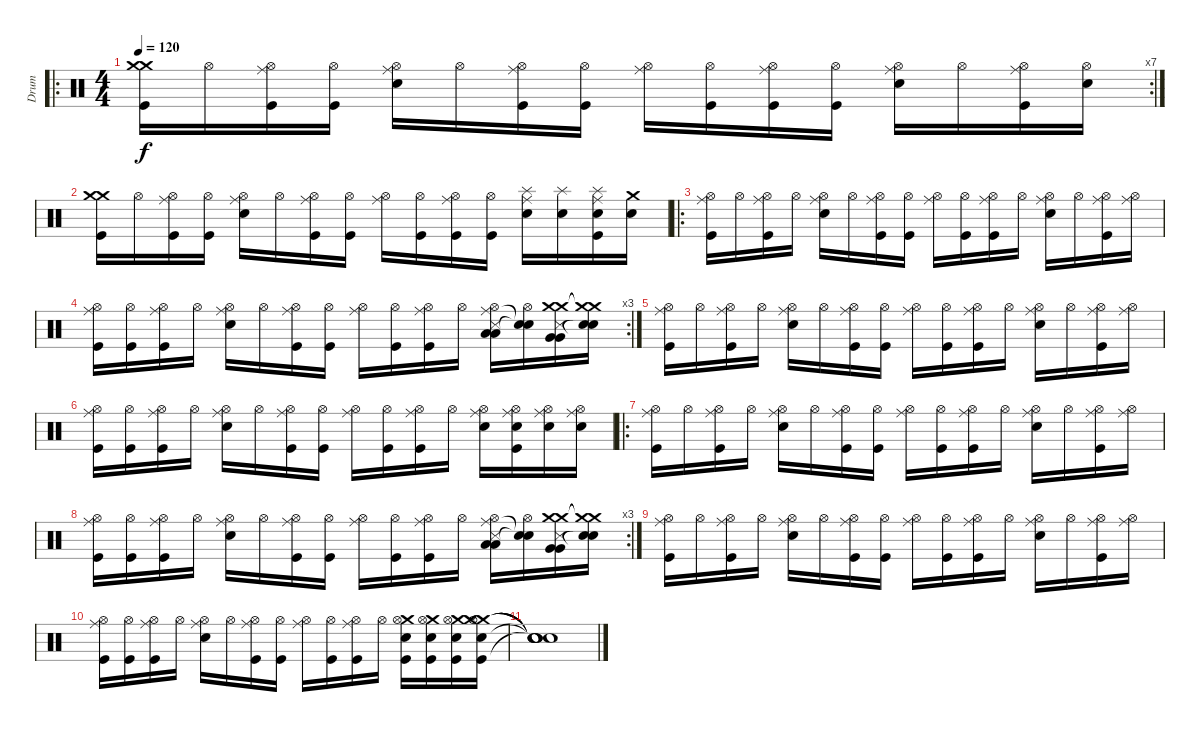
\track ("Drum" "Drum") {instrument percussion}
\staff {score}
\articulation defaults
\ro
\rc 7
\ts (4 4)
\tempo 120
\clef neutral
\ks c
("Crash medium (hit)" "Crash medium (hit)" "Kick (hit)").16{dy f} "Hi-Hat (open)".16 ("Hi-Hat (open)" "Ride (middle)" "Kick (hit)").16 ("Hi-Hat (open)" "Kick (hit)").16 ("Hi-Hat (open)" "Ride (middle)" "Snare (hit) 2").16 "Hi-Hat (open)".16 ("Hi-Hat (open)" "Ride (middle)" "Kick (hit)").16 ("Hi-Hat (open)" "Kick (hit)").16 ("Hi-Hat (open)" "Ride (middle)").16 ("Hi-Hat (open)" "Kick (hit)").16 ("Hi-Hat (open)" "Ride (middle)" "Kick (hit)").16 ("Hi-Hat (open)" "Kick (hit)").16 ("Hi-Hat (open)" "Ride (middle)" "Snare (hit) 2").16 "Hi-Hat (open)".16 ("Hi-Hat (open)" "Ride (middle)" "Kick (hit)").16 ("Hi-Hat (open)" "Snare (hit) 2").16 |
("Crash medium (hit)" "Crash medium (hit)" "Kick (hit)").16 "Hi-Hat (open)".16 ("Hi-Hat (open)" "Ride (middle)" "Kick (hit)").16 ("Hi-Hat (open)" "Kick (hit)").16 ("Hi-Hat (open)" "Ride (middle)" "Snare (hit) 2").16 "Hi-Hat (open)".16 ("Hi-Hat (open)" "Ride (middle)" "Kick (hit)").16 ("Hi-Hat (open)" "Kick (hit)").16 ("Hi-Hat (open)" "Ride (middle)").16 ("Hi-Hat (open)" "Kick (hit)").16 ("Hi-Hat (open)" "Ride (middle)" "Kick (hit)").16 ("Hi-Hat (open)" "Kick (hit)").16 ("Splash (hit)" "Ride (middle)" "Snare (hit) 2").16 ("Splash (hit)" "Snare (hit) 2").16 ("Splash (hit)" "Ride (middle)" "Snare (hit) 2" "Kick (hit)").16 ("Crash medium (hit)" "Snare (hit) 2").16 |
\ro
("Hi-Hat (open)" "Ride (middle)" "Kick (hit)").16 "Hi-Hat (open)".16 ("Hi-Hat (open)" "Ride (middle)" "Kick (hit)").16 "Hi-Hat (open)".16 ("Hi-Hat (open)" "Ride (middle)" "Snare (hit) 2").16 "Hi-Hat (open)".16 ("Hi-Hat (open)" "Ride (middle)" "Kick (hit)").16 ("Hi-Hat (open)" "Kick (hit)").16 ("Hi-Hat (open)" "Ride (middle)").16 ("Hi-Hat (open)" "Kick (hit)").16 ("Hi-Hat (open)" "Ride (middle)" "Kick (hit)").16 "Hi-Hat (open)".16 ("Hi-Hat (open)" "Ride (middle)" "Snare (hit) 2").16 "Hi-Hat (open)".16 ("Hi-Hat (open)" "Ride (middle)" "Kick (hit)").16 ("Hi-Hat (open)" "Ride (middle)").16 |
\rc 3
("Hi-Hat (open)" "Ride (middle)" "Kick (hit)").16 ("Hi-Hat (open)" "Kick (hit)").16 ("Hi-Hat (open)" "Ride (middle)" "Kick (hit)").16 "Hi-Hat (open)".16 ("Hi-Hat (open)" "Ride (middle)" "Snare (hit) 2").16 "Hi-Hat (open)".16 ("Hi-Hat (open)" "Ride (middle)" "Kick (hit)").16 ("Hi-Hat (open)" "Kick (hit)").16 ("Hi-Hat (open)" "Ride (middle)").16 ("Hi-Hat (open)" "Kick (hit)").16 ("Hi-Hat (open)" "Ride (middle)" "Kick (hit)").16 "Hi-Hat (open)".16 ("Hi-Hat (open)" "Ride (middle)" "Low Tom (hit)" "Low Tom (hit)" "Metronome (hit)").16 ("Hi-Hat (open)" "Snare (hit)"{t} "Snare (hit)"{t}).16 ("Crash medium (hit)" "Crash medium (hit)" "Very Low Tom (hit)" "Very Low Tom (hit)" "Metronome (hit)").16 ("Crash medium (hit)"{t} "Crash medium (hit)"{t} "Snare (hit)"{t} "Snare (hit)"{t}).16 |
("Hi-Hat (open)" "Ride (middle)" "Kick (hit)").16 "Hi-Hat (open)".16 ("Hi-Hat (open)" "Ride (middle)" "Kick (hit)").16 "Hi-Hat (open)".16 ("Hi-Hat (open)" "Ride (middle)" "Snare (hit) 2").16 "Hi-Hat (open)".16 ("Hi-Hat (open)" "Ride (middle)" "Kick (hit)").16 ("Hi-Hat (open)" "Kick (hit)").16 ("Hi-Hat (open)" "Ride (middle)").16 ("Hi-Hat (open)" "Kick (hit)").16 ("Hi-Hat (open)" "Ride (middle)" "Kick (hit)").16 "Hi-Hat (open)".16 ("Hi-Hat (open)" "Ride (middle)" "Snare (hit) 2").16 "Hi-Hat (open)".16 ("Hi-Hat (open)" "Ride (middle)" "Kick (hit)").16 ("Hi-Hat (open)" "Ride (middle)").16 |
("Hi-Hat (open)" "Ride (middle)" "Kick (hit)").16 ("Hi-Hat (open)" "Kick (hit)").16 ("Hi-Hat (open)" "Ride (middle)" "Kick (hit)").16 "Hi-Hat (open)".16 ("Hi-Hat (open)" "Ride (middle)" "Snare (hit) 2").16 "Hi-Hat (open)".16 ("Hi-Hat (open)" "Ride (middle)" "Kick (hit)").16 ("Hi-Hat (open)" "Kick (hit)").16 ("Hi-Hat (open)" "Ride (middle)").16 ("Hi-Hat (open)" "Kick (hit)").16 ("Hi-Hat (open)" "Ride (middle)" "Kick (hit)").16 "Hi-Hat (open)".16 ("Hi-Hat (open)" "Ride (middle)" "Snare (hit) 2").16 ("Hi-Hat (open)" "Ride (middle)" "Snare (hit) 2" "Kick (hit)").16 ("Hi-Hat (open)" "Ride (middle)" "Snare (hit) 2").16 ("Hi-Hat (open)" "Ride (middle)" "Snare (hit) 2").16 |
\ro
("Hi-Hat (open)" "Ride (middle)" "Kick (hit)").16 "Hi-Hat (open)".16 ("Hi-Hat (open)" "Ride (middle)" "Kick (hit)").16 "Hi-Hat (open)".16 ("Hi-Hat (open)" "Ride (middle)" "Snare (hit) 2").16 "Hi-Hat (open)".16 ("Hi-Hat (open)" "Ride (middle)" "Kick (hit)").16 ("Hi-Hat (open)" "Kick (hit)").16 ("Hi-Hat (open)" "Ride (middle)").16 ("Hi-Hat (open)" "Kick (hit)").16 ("Hi-Hat (open)" "Ride (middle)" "Kick (hit)").16 "Hi-Hat (open)".16 ("Hi-Hat (open)" "Ride (middle)" "Snare (hit) 2").16 "Hi-Hat (open)".16 ("Hi-Hat (open)" "Ride (middle)" "Kick (hit)").16 ("Hi-Hat (open)" "Ride (middle)").16 |
\rc 3
("Hi-Hat (open)" "Ride (middle)" "Kick (hit)").16 ("Hi-Hat (open)" "Kick (hit)").16 ("Hi-Hat (open)" "Ride (middle)" "Kick (hit)").16 "Hi-Hat (open)".16 ("Hi-Hat (open)" "Ride (middle)" "Snare (hit) 2").16 "Hi-Hat (open)".16 ("Hi-Hat (open)" "Ride (middle)" "Kick (hit)").16 ("Hi-Hat (open)" "Kick (hit)").16 ("Hi-Hat (open)" "Ride (middle)").16 ("Hi-Hat (open)" "Kick (hit)").16 ("Hi-Hat (open)" "Ride (middle)" "Kick (hit)").16 "Hi-Hat (open)".16 ("Hi-Hat (open)" "Ride (middle)" "Low Tom (hit)" "Low Tom (hit)" "Metronome (hit)").16 ("Hi-Hat (open)" "Snare (hit)"{t} "Snare (hit)"{t}).16 ("Crash medium (hit)" "Crash medium (hit)" "Very Low Tom (hit)" "Very Low Tom (hit)" "Metronome (hit)").16 ("Crash medium (hit)"{t} "Crash medium (hit)"{t} "Snare (hit)"{t} "Snare (hit)"{t}).16 |
("Hi-Hat (open)" "Ride (middle)" "Kick (hit)").16 "Hi-Hat (open)".16 ("Hi-Hat (open)" "Ride (middle)" "Kick (hit)").16 "Hi-Hat (open)".16 ("Hi-Hat (open)" "Ride (middle)" "Snare (hit) 2").16 "Hi-Hat (open)".16 ("Hi-Hat (open)" "Ride (middle)" "Kick (hit)").16 ("Hi-Hat (open)" "Kick (hit)").16 ("Hi-Hat (open)" "Ride (middle)").16 ("Hi-Hat (open)" "Kick (hit)").16 ("Hi-Hat (open)" "Ride (middle)" "Kick (hit)").16 "Hi-Hat (open)".16 ("Hi-Hat (open)" "Ride (middle)" "Snare (hit) 2").16 "Hi-Hat (open)".16 ("Hi-Hat (open)" "Ride (middle)" "Kick (hit)").16 ("Hi-Hat (open)" "Ride (middle)").16 |
("Hi-Hat (open)" "Ride (middle)" "Kick (hit)").16 ("Hi-Hat (open)" "Kick (hit)").16 ("Hi-Hat (open)" "Ride (middle)" "Kick (hit)").16 "Hi-Hat (open)".16 ("Hi-Hat (open)" "Ride (middle)" "Snare (hit) 2").16 "Hi-Hat (open)".16 ("Hi-Hat (open)" "Ride (middle)" "Kick (hit)").16 ("Hi-Hat (open)" "Kick (hit)").16 ("Hi-Hat (open)" "Ride (middle)").16 ("Hi-Hat (open)" "Kick (hit)").16 ("Hi-Hat (open)" "Ride (middle)" "Kick (hit)").16 "Hi-Hat (open)".16 ("Crash medium (hit)" "Hi-Hat (open)" "Snare (hit) 2" "Kick (hit)").16 ("Crash medium (hit)" "Hi-Hat (open)" "Snare (hit) 2" "Kick (hit)").16 ("Crash medium (hit)" "Hi-Hat (open)" "Snare (hit) 2" "Kick (hit)").16 ("Crash medium (hit)" "Hi-Hat (open)" "Crash medium (hit)" "Snare (hit) 2" "Kick (hit)").16 |
("Snare (hit)"{t} "Snare (hit)"{t} "Snare (hit)"{t} "Snare (hit)"{t} "Snare (hit)"{t}).1
